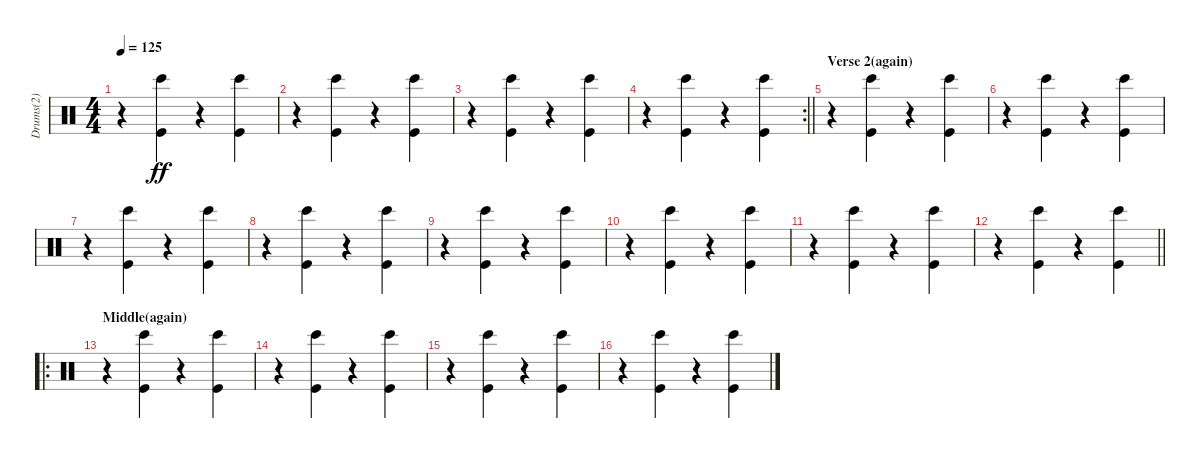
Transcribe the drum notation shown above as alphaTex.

\track ("Drums(2)" "Drums(2)") {instrument percussion}
\staff {score}
\articulation defaults
\ts (4 4)
\tempo 125
\clef neutral
\ks c
r.4{dy ff} ("Kick (hit)" "Bongo High (hit)").4 r.4 ("Kick (hit)" "Bongo High (hit)").4 |
r.4 ("Kick (hit)" "Bongo High (hit)").4 r.4 ("Kick (hit)" "Bongo High (hit)").4 |
r.4 ("Kick (hit)" "Bongo High (hit)").4 r.4 ("Kick (hit)" "Bongo High (hit)").4 |
\rc 2
\barLineRight lightlight
r.4 ("Kick (hit)" "Bongo High (hit)").4 r.4 ("Kick (hit)" "Bongo High (hit)").4 |
\section ("" "Verse 2(again)")
r.4 ("Kick (hit)" "Bongo High (hit)").4 r.4 ("Kick (hit)" "Bongo High (hit)").4 |
r.4 ("Kick (hit)" "Bongo High (hit)").4 r.4 ("Kick (hit)" "Bongo High (hit)").4 |
r.4 ("Kick (hit)" "Bongo High (hit)").4 r.4 ("Kick (hit)" "Bongo High (hit)").4 |
r.4 ("Kick (hit)" "Bongo High (hit)").4 r.4 ("Kick (hit)" "Bongo High (hit)").4 |
r.4 ("Kick (hit)" "Bongo High (hit)").4 r.4 ("Kick (hit)" "Bongo High (hit)").4 |
r.4 ("Kick (hit)" "Bongo High (hit)").4 r.4 ("Kick (hit)" "Bongo High (hit)").4 |
r.4 ("Kick (hit)" "Bongo High (hit)").4 r.4 ("Kick (hit)" "Bongo High (hit)").4 |
\barLineRight lightlight
r.4 ("Kick (hit)" "Bongo High (hit)").4 r.4 ("Kick (hit)" "Bongo High (hit)").4 |
\ro
\section ("" "Middle(again)")
r.4{volume 16} ("Kick (hit)" "Bongo High (hit)").4 r.4 ("Kick (hit)" "Bongo High (hit)").4 |
r.4 ("Kick (hit)" "Bongo High (hit)").4 r.4 ("Kick (hit)" "Bongo High (hit)").4 |
r.4 ("Kick (hit)" "Bongo High (hit)").4 r.4 ("Kick (hit)" "Bongo High (hit)").4 |
r.4 ("Kick (hit)" "Bongo High (hit)").4 r.4 ("Kick (hit)" "Bongo High (hit)").4
